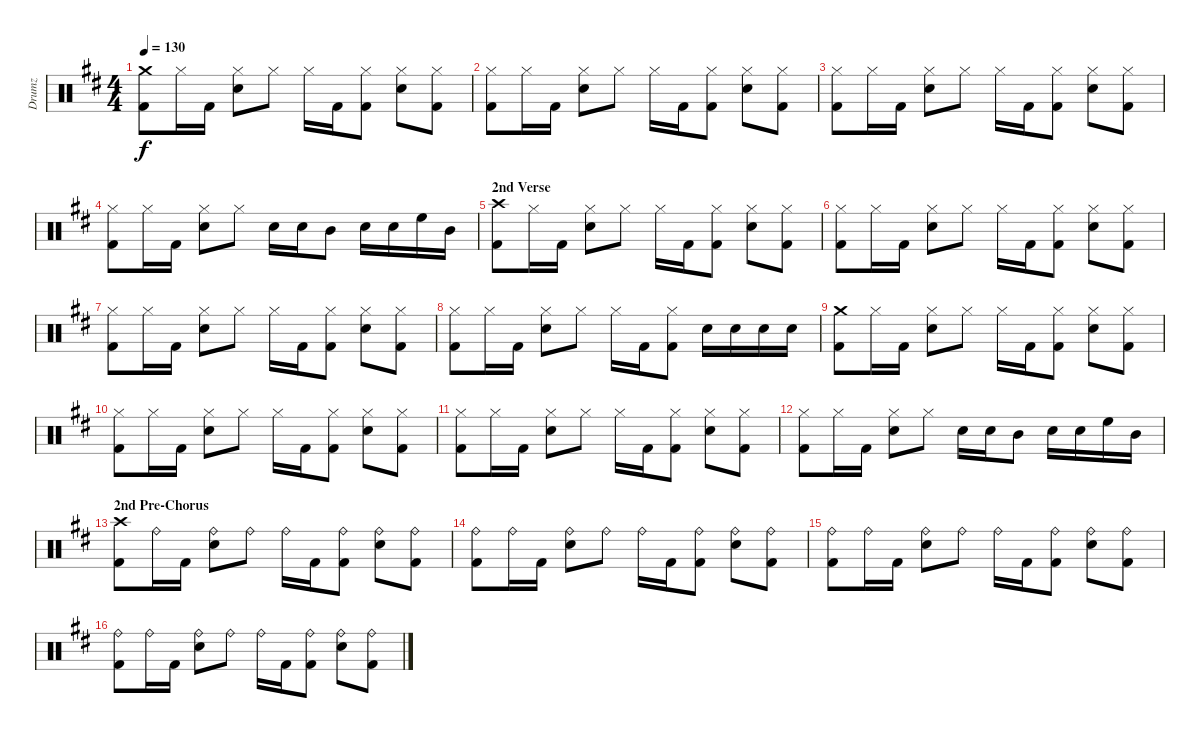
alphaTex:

\track ("Drumz" "Drumz") {instrument percussion}
\staff {score}
\articulation defaults
\ts (4 4)
\tempo 130
\clef neutral
\ks d
("Crash medium (hit)" "Kick (hit) 2").8{dy f} "Hi-Hat (closed)".16 "Kick (hit) 2".16 ("Hi-Hat (closed)" "Snare (hit) 2").8 "Hi-Hat (closed)".8 "Hi-Hat (closed)".16 "Kick (hit) 2".16 ("Hi-Hat (closed)" "Kick (hit) 2").8 ("Hi-Hat (closed)" "Snare (hit) 2").8 ("Hi-Hat (closed)" "Kick (hit) 2").8 |
("Hi-Hat (closed)" "Kick (hit) 2").8 "Hi-Hat (closed)".16 "Kick (hit) 2".16 ("Hi-Hat (closed)" "Snare (hit) 2").8 "Hi-Hat (closed)".8 "Hi-Hat (closed)".16 "Kick (hit) 2".16 ("Hi-Hat (closed)" "Kick (hit) 2").8 ("Hi-Hat (closed)" "Snare (hit) 2").8 ("Hi-Hat (closed)" "Kick (hit) 2").8 |
("Hi-Hat (closed)" "Kick (hit) 2").8 "Hi-Hat (closed)".16 "Kick (hit) 2".16 ("Hi-Hat (closed)" "Snare (hit) 2").8 "Hi-Hat (closed)".8 "Hi-Hat (closed)".16 "Kick (hit) 2".16 ("Hi-Hat (closed)" "Kick (hit) 2").8 ("Hi-Hat (closed)" "Snare (hit) 2").8 ("Hi-Hat (closed)" "Kick (hit) 2").8 |
("Hi-Hat (closed)" "Kick (hit) 2").8 "Hi-Hat (closed)".16 "Kick (hit) 2".16 ("Hi-Hat (closed)" "Snare (hit) 2").8 "Hi-Hat (closed)".8 "Snare (hit) 2".16 "Snare (hit) 2".16 "Mid Tom (hit)".8 "Snare (hit) 2".16 "Snare (hit) 2".16 "High Floor Tom (hit)".16 "Mid Tom (hit)".16 |
\section ("" "2nd Verse")
("Crash high (hit)" "Kick (hit) 2").8 "Hi-Hat (closed)".16 "Kick (hit) 2".16 ("Hi-Hat (closed)" "Snare (hit) 2").8 "Hi-Hat (closed)".8 "Hi-Hat (closed)".16 "Kick (hit) 2".16 ("Hi-Hat (closed)" "Kick (hit) 2").8 ("Hi-Hat (closed)" "Snare (hit) 2").8 ("Hi-Hat (closed)" "Kick (hit) 2").8 |
("Hi-Hat (closed)" "Kick (hit) 2").8 "Hi-Hat (closed)".16 "Kick (hit) 2".16 ("Hi-Hat (closed)" "Snare (hit) 2").8 "Hi-Hat (closed)".8 "Hi-Hat (closed)".16 "Kick (hit) 2".16 ("Hi-Hat (closed)" "Kick (hit) 2").8 ("Hi-Hat (closed)" "Snare (hit) 2").8 ("Hi-Hat (closed)" "Kick (hit) 2").8 |
("Hi-Hat (closed)" "Kick (hit) 2").8 "Hi-Hat (closed)".16 "Kick (hit) 2".16 ("Hi-Hat (closed)" "Snare (hit) 2").8 "Hi-Hat (closed)".8 "Hi-Hat (closed)".16 "Kick (hit) 2".16 ("Hi-Hat (closed)" "Kick (hit) 2").8 ("Hi-Hat (closed)" "Snare (hit) 2").8 ("Hi-Hat (closed)" "Kick (hit) 2").8 |
("Hi-Hat (closed)" "Kick (hit) 2").8 "Hi-Hat (closed)".16 "Kick (hit) 2".16 ("Hi-Hat (closed)" "Snare (hit) 2").8 "Hi-Hat (closed)".8 "Hi-Hat (closed)".16 "Kick (hit) 2".16 ("Hi-Hat (closed)" "Kick (hit) 2").8 "Snare (hit) 2".16 "Snare (hit) 2".16 "Snare (hit) 2".16 "Snare (hit) 2".16 |
("Crash medium (hit)" "Kick (hit) 2").8 "Hi-Hat (closed)".16 "Kick (hit) 2".16 ("Hi-Hat (closed)" "Snare (hit) 2").8 "Hi-Hat (closed)".8 "Hi-Hat (closed)".16 "Kick (hit) 2".16 ("Hi-Hat (closed)" "Kick (hit) 2").8 ("Hi-Hat (closed)" "Snare (hit) 2").8 ("Hi-Hat (closed)" "Kick (hit) 2").8 |
("Hi-Hat (closed)" "Kick (hit) 2").8 "Hi-Hat (closed)".16 "Kick (hit) 2".16 ("Hi-Hat (closed)" "Snare (hit) 2").8 "Hi-Hat (closed)".8 "Hi-Hat (closed)".16 "Kick (hit) 2".16 ("Hi-Hat (closed)" "Kick (hit) 2").8 ("Hi-Hat (closed)" "Snare (hit) 2").8 ("Hi-Hat (closed)" "Kick (hit) 2").8 |
("Hi-Hat (closed)" "Kick (hit) 2").8 "Hi-Hat (closed)".16 "Kick (hit) 2".16 ("Hi-Hat (closed)" "Snare (hit) 2").8 "Hi-Hat (closed)".8 "Hi-Hat (closed)".16 "Kick (hit) 2".16 ("Hi-Hat (closed)" "Kick (hit) 2").8 ("Hi-Hat (closed)" "Snare (hit) 2").8 ("Hi-Hat (closed)" "Kick (hit) 2").8 |
("Hi-Hat (closed)" "Kick (hit) 2").8 "Hi-Hat (closed)".16 "Kick (hit) 2".16 ("Hi-Hat (closed)" "Snare (hit) 2").8 "Hi-Hat (closed)".8 "Snare (hit) 2".16 "Snare (hit) 2".16 "Mid Tom (hit)".8 "Snare (hit) 2".16 "Snare (hit) 2".16 "High Floor Tom (hit)".16 "Mid Tom (hit)".16 |
\section ("" "2nd Pre-Chorus")
("Crash high (hit)" "Kick (hit) 2").8 "Ride (bell)".16 "Kick (hit) 2".16 ("Ride (bell)" "Snare (hit) 2").8 "Ride (bell)".8 "Ride (bell)".16 "Kick (hit) 2".16 ("Ride (bell)" "Kick (hit) 2").8 ("Ride (bell)" "Snare (hit) 2").8 ("Ride (bell)" "Kick (hit) 2").8 |
("Ride (bell)" "Kick (hit) 2").8 "Ride (bell)".16 "Kick (hit) 2".16 ("Ride (bell)" "Snare (hit) 2").8 "Ride (bell)".8 "Ride (bell)".16 "Kick (hit) 2".16 ("Ride (bell)" "Kick (hit) 2").8 ("Ride (bell)" "Snare (hit) 2").8 ("Ride (bell)" "Kick (hit) 2").8 |
("Ride (bell)" "Kick (hit) 2").8 "Ride (bell)".16 "Kick (hit) 2".16 ("Ride (bell)" "Snare (hit) 2").8 "Ride (bell)".8 "Ride (bell)".16 "Kick (hit) 2".16 ("Ride (bell)" "Kick (hit) 2").8 ("Ride (bell)" "Snare (hit) 2").8 ("Ride (bell)" "Kick (hit) 2").8 |
("Ride (bell)" "Kick (hit) 2").8 "Ride (bell)".16 "Kick (hit) 2".16 ("Ride (bell)" "Snare (hit) 2").8 "Ride (bell)".8 "Ride (bell)".16 "Kick (hit) 2".16 ("Ride (bell)" "Kick (hit) 2").8 ("Ride (bell)" "Snare (hit) 2").8 ("Ride (bell)" "Kick (hit) 2").8
